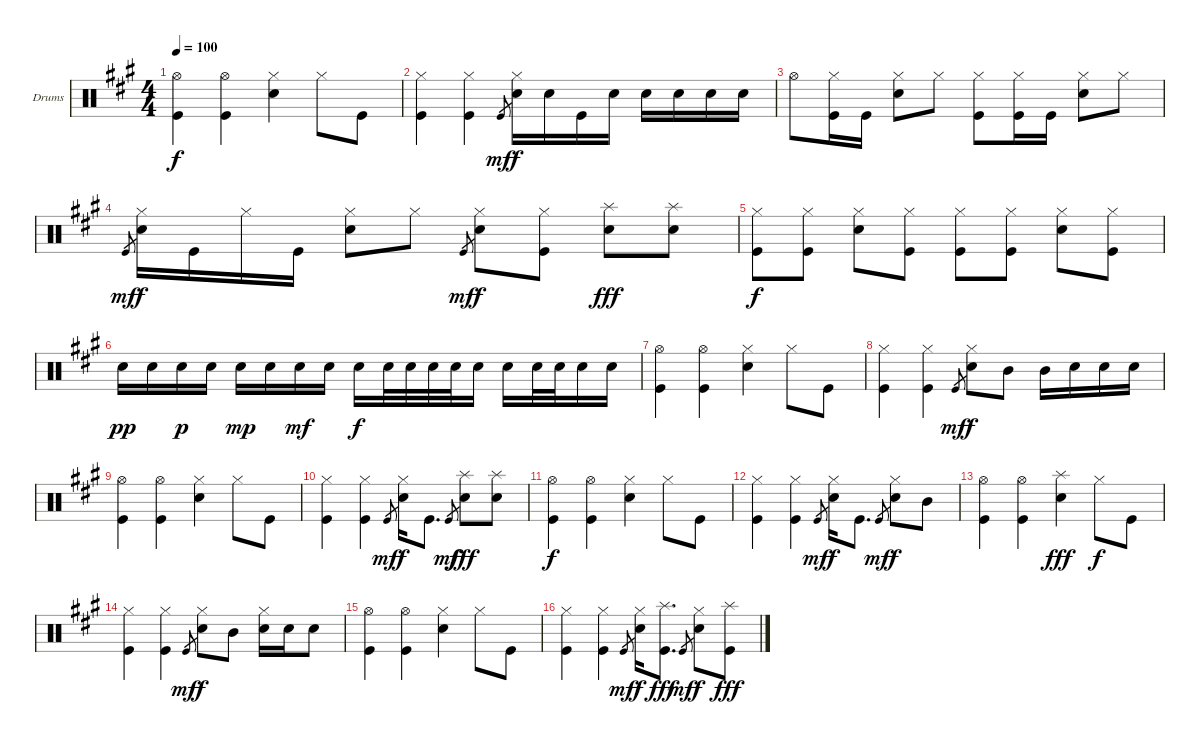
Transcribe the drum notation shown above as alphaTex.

\bracketExtendMode groupsimilarinstruments
\firstSystemTrackNameOrientation horizontal
\otherSystemsTrackNameOrientation horizontal
\track ("Drumkit" "Drums") {instrument percussion}
\staff {score}
\articulation defaults
\ts (4 4)
\tempo 100
\clef neutral
\scale
1.05801
\ks a
("Hi-Hat (open)" "Kick (hit)").4{dy f} ("Hi-Hat (open)" "Kick (hit)").4 ("Hi-Hat (closed)" "Snare (hit) 2").4 "Hi-Hat (closed)".8 "Kick (hit)".8 |
\scale
0.941992 ("Hi-Hat (closed)" "Kick (hit)").4 ("Hi-Hat (closed)" "Kick (hit)").4 "Kick (hit)".8{gr dy mf} ("Hi-Hat (closed)" "Snare (hit) 2").16{dy f} "Snare (hit) 2".16 "Kick (hit)".16 "Snare (hit) 2".16 "Snare (hit) 2".16 "Snare (hit) 2".16 "Snare (hit) 2".16 "Snare (hit) 2".16 |
\scale
1.05801 "Hi-Hat (open)".8 ("Hi-Hat (closed)" "Kick (hit)").16 "Kick (hit)".16 ("Hi-Hat (closed)" "Snare (hit) 2").8 "Hi-Hat (closed)".8 ("Hi-Hat (closed)" "Kick (hit)").8 ("Hi-Hat (closed)" "Kick (hit)").16 "Kick (hit)".16 ("Hi-Hat (closed)" "Snare (hit) 2").8 "Hi-Hat (closed)".8 |
\scale
0.941992 "Kick (hit)".8{gr dy mf} ("Hi-Hat (closed)" "Snare (hit) 2").16{dy f} "Kick (hit)".16 "Hi-Hat (closed)".16 "Kick (hit)".16 ("Hi-Hat (closed)" "Snare (hit) 2").8 "Hi-Hat (closed)".8 "Kick (hit)".8{gr dy mf} ("Hi-Hat (closed)" "Snare (hit) 2").8{dy f} ("Hi-Hat (closed)" "Kick (hit)").8 ("Splash (hit)" "Snare (hit) 2").8{dy fff} ("Splash (hit)" "Snare (hit) 2").8 |
\scale
1.05801 ("Hi-Hat (closed)" "Kick (hit)").8{dy f} ("Hi-Hat (closed)" "Kick (hit)").8 ("Hi-Hat (closed)" "Snare (hit) 2").8 ("Hi-Hat (closed)" "Kick (hit)").8 ("Hi-Hat (closed)" "Kick (hit)").8 ("Hi-Hat (closed)" "Kick (hit)").8 ("Hi-Hat (closed)" "Snare (hit) 2").8 ("Hi-Hat (closed)" "Kick (hit)").8 |
\scale
0.941992 "Snare (hit) 2".16{dy pp} "Snare (hit) 2".16 "Snare (hit) 2".16{dy p} "Snare (hit) 2".16 "Snare (hit) 2".16{dy mp} "Snare (hit) 2".16 "Snare (hit) 2".16{dy mf} "Snare (hit) 2".16 "Snare (hit) 2".16{dy f} "Snare (hit) 2".32 "Snare (hit) 2".32 "Snare (hit) 2".32 "Snare (hit) 2".32 "Snare (hit) 2".16 "Snare (hit) 2".16 "Snare (hit) 2".32 "Snare (hit) 2".32 "Snare (hit) 2".16 "Snare (hit) 2".16 |
\scale
1.05801 ("Hi-Hat (open)" "Kick (hit)").4 ("Hi-Hat (open)" "Kick (hit)").4 ("Hi-Hat (closed)" "Snare (hit) 2").4 "Hi-Hat (closed)".8 "Kick (hit)".8 |
\scale
0.941992 ("Hi-Hat (closed)" "Kick (hit)").4 ("Hi-Hat (closed)" "Kick (hit)").4 "Kick (hit)".8{gr dy mf} ("Hi-Hat (closed)" "Snare (hit) 2").8{dy f} "Mid Tom (hit)".8 "Mid Tom (hit)".16 "Snare (hit) 2".16 "Snare (hit) 2".16 "Snare (hit) 2".16 |
\scale
1.05801 ("Hi-Hat (open)" "Kick (hit)").4 ("Hi-Hat (open)" "Kick (hit)").4 ("Hi-Hat (closed)" "Snare (hit) 2").4 "Hi-Hat (closed)".8 "Kick (hit)".8 |
\scale
0.941992 ("Hi-Hat (closed)" "Kick (hit)").4 ("Hi-Hat (closed)" "Kick (hit)").4 "Kick (hit)".8{gr dy mf} ("Hi-Hat (closed)" "Snare (hit) 2").16{dy f} "Kick (hit)".8{d} "Kick (hit)".8{gr dy mf} ("Splash (hit)" "Snare (hit) 2").8{dy fff} ("Splash (hit)" "Snare (hit) 2").8 |
\scale
1.05801 ("Hi-Hat (open)" "Kick (hit)").4{dy f} ("Hi-Hat (open)" "Kick (hit)").4 ("Hi-Hat (closed)" "Snare (hit) 2").4 "Hi-Hat (closed)".8 "Kick (hit)".8 |
\scale
0.941992 ("Hi-Hat (closed)" "Kick (hit)").4 ("Hi-Hat (closed)" "Kick (hit)").4 "Kick (hit)".8{gr dy mf} ("Hi-Hat (closed)" "Snare (hit) 2").16{dy f} "Kick (hit)".8{d} "Kick (hit)".8{gr dy mf} ("Hi-Hat (closed)" "Snare (hit) 2").8{dy f} "Mid Tom (hit)".8 |
\scale
1.05801 ("Hi-Hat (open)" "Kick (hit)").4 ("Hi-Hat (open)" "Kick (hit)").4 ("Splash (hit)" "Snare (hit) 2").4{dy fff} "Hi-Hat (closed)".8{dy f} "Kick (hit)".8 |
\scale
0.941992 ("Hi-Hat (closed)" "Kick (hit)").4 ("Hi-Hat (closed)" "Kick (hit)").4 "Kick (hit)".8{gr dy mf} ("Hi-Hat (closed)" "Snare (hit) 2").8{dy f} "Mid Tom (hit)".8 ("Hi-Hat (closed)" "Snare (hit) 2").16 "Snare (hit) 2".16 "Snare (hit) 2".8 |
\scale
1.05801 ("Hi-Hat (open)" "Kick (hit)").4 ("Hi-Hat (open)" "Kick (hit)").4 ("Hi-Hat (closed)" "Snare (hit) 2").4 "Hi-Hat (closed)".8 "Kick (hit)".8 |
\scale
0.941992 ("Hi-Hat (closed)" "Kick (hit)").4 ("Hi-Hat (closed)" "Kick (hit)").4 "Kick (hit)".8{gr dy mf} ("Hi-Hat (closed)" "Snare (hit) 2").16{dy f} ("Splash (hit)" "Kick (hit)").8{d dy fff} "Kick (hit)".8{gr dy mf} ("Hi-Hat (closed)" "Snare (hit) 2").8{dy f} ("Splash (hit)" "Kick (hit)").8{dy fff}
